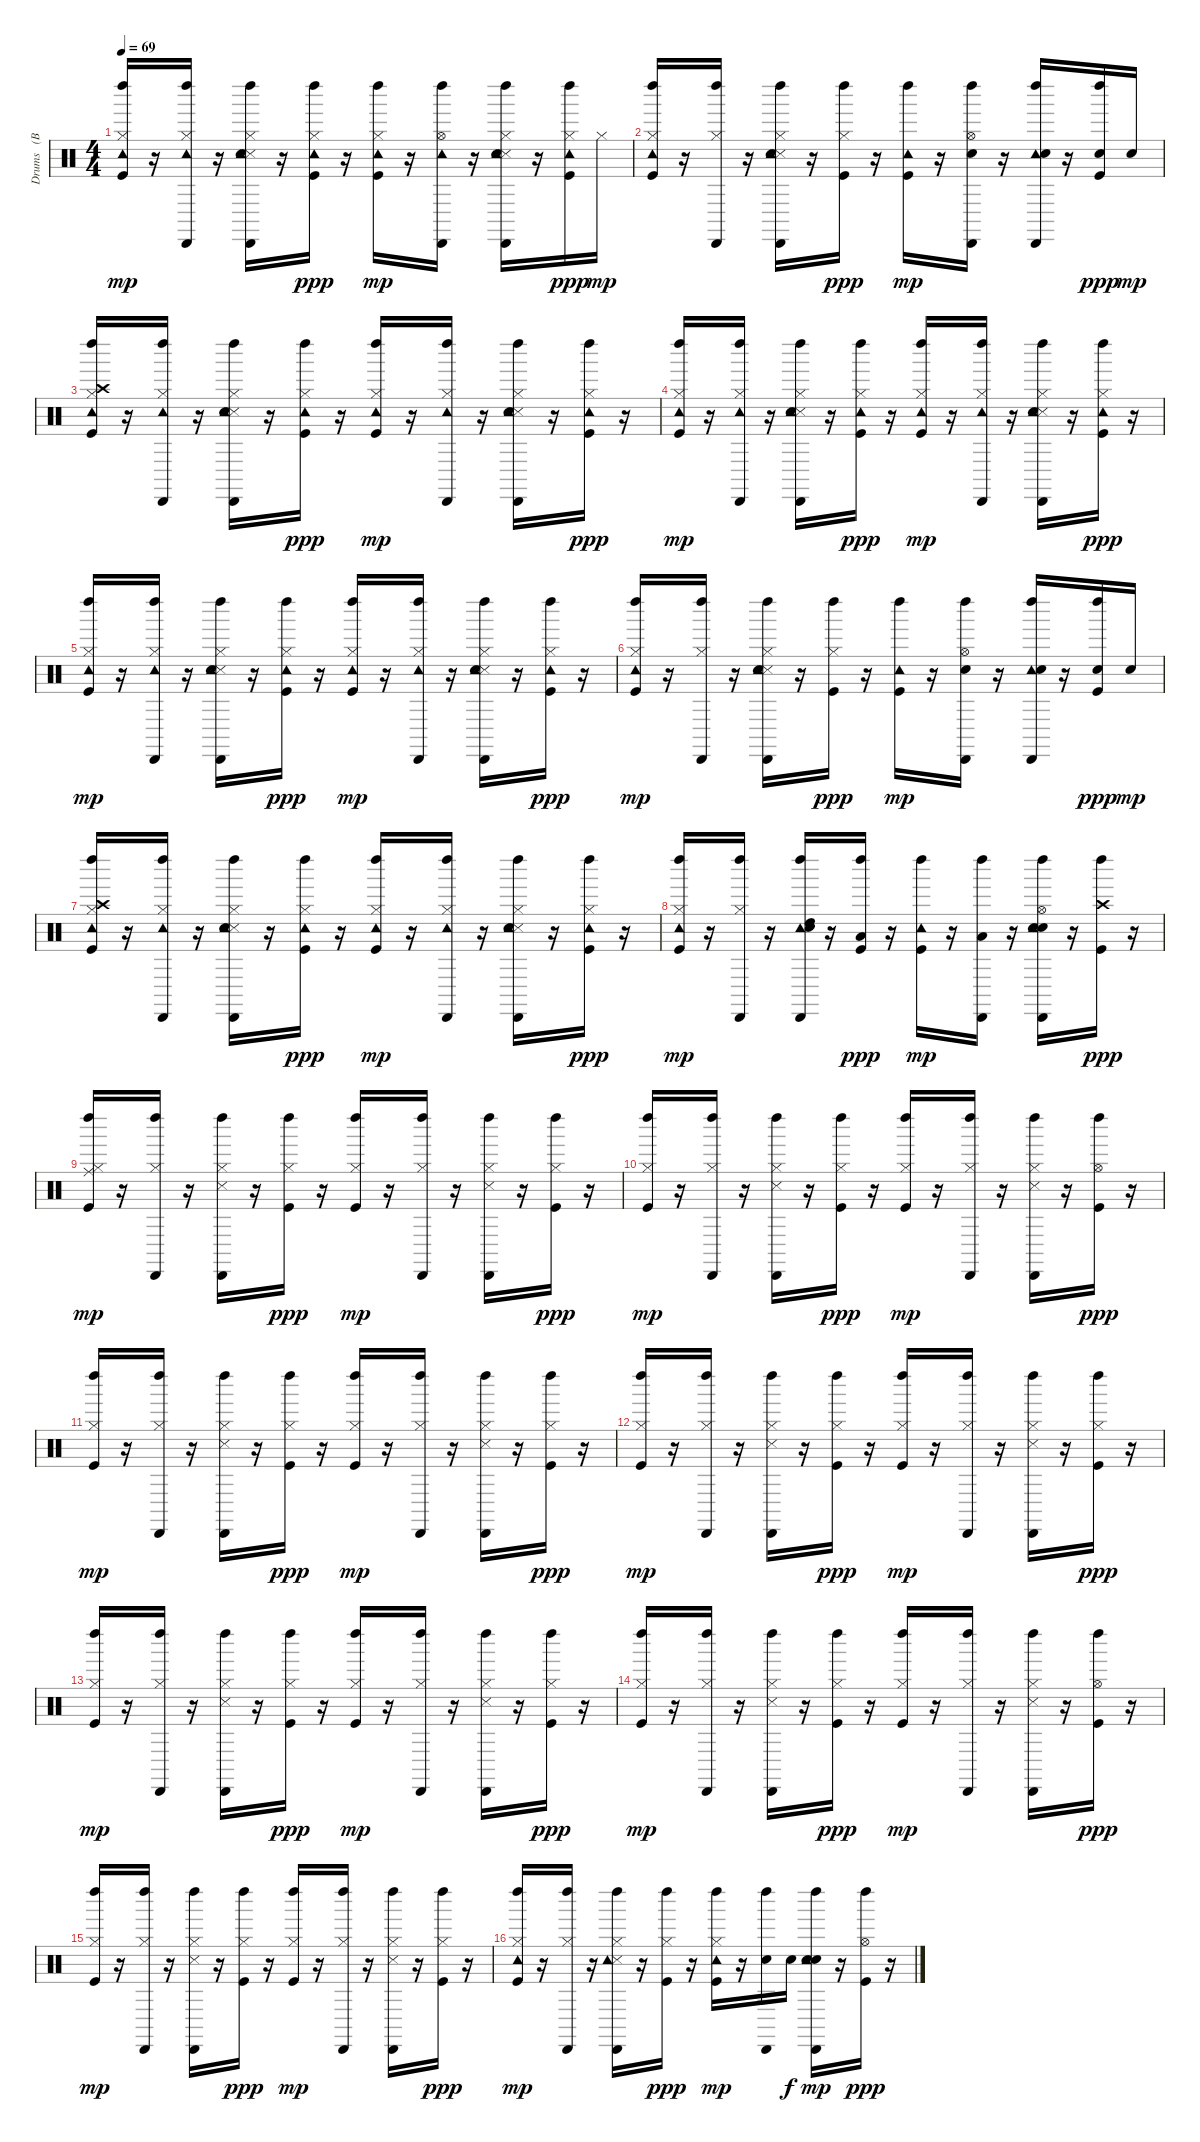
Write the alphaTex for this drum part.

\track ("Drums   (BB)" "Drums   (B") {instrument percussion}
\staff {score}
\articulation defaults
\ts (4 4)
\tempo 69
\clef neutral
\ks c
("Kick (hit)" "Hi-Hat (closed)" "Tambourine (hit)" "Left Maraca (hit)").16{dy mp} r.16 ("Hi-Hat (closed)" "Tambourine (hit)" "Left Maraca (hit)" "Cabasa (hit)").16 r.16 ("Hi-Hat (closed)" "Snare (side stick) 3" "Tambourine (hit)" "Hand Clap (hit)" "Left Maraca (hit)" "Cabasa (hit)").16 r.16 ("Kick (hit)" "Hi-Hat (closed)" "Tambourine (hit)" "Left Maraca (hit)").16{dy ppp} r.16 ("Kick (hit)" "Hi-Hat (closed)" "Tambourine (hit)" "Left Maraca (hit)").16{dy mp} r.16 ("Hi-Hat (open)" "Tambourine (hit)" "Left Maraca (hit)" "Cabasa (hit)").16 r.16 ("Hi-Hat (closed)" "Snare (side stick) 3" "Tambourine (hit)" "Hand Clap (hit)" "Left Maraca (hit)" "Cabasa (hit)").16 r.16 ("Kick (hit)" "Hi-Hat (closed)" "Tambourine (hit)" "Left Maraca (hit)").16{dy ppp} "Hi-Hat (closed)".16{dy mp} |
("Kick (hit)" "Hi-Hat (closed)" "Tambourine (hit)" "Left Maraca (hit)").16 r.16 ("Hi-Hat (closed)" "Left Maraca (hit)" "Cabasa (hit)").16 r.16 ("Hi-Hat (closed)" "Snare (side stick) 3" "Tambourine (hit)" "Hand Clap (hit)" "Left Maraca (hit)" "Cabasa (hit)").16 r.16 ("Kick (hit)" "Hi-Hat (closed)" "Left Maraca (hit)").16{dy ppp} r.16 ("Kick (hit)" "Tambourine (hit)" "Left Maraca (hit)").16{dy mp} r.16 ("Snare (hit) 2" "Hi-Hat (open)" "Left Maraca (hit)" "Cabasa (hit)").16 r.16 ("Tambourine (hit)" "Hand Clap (hit)" "Left Maraca (hit)" "Cabasa (hit)").16 r.16 ("Kick (hit)" "Snare (hit) 2" "Left Maraca (hit)").16{dy ppp} "Snare (hit) 2".16{dy mp} |
("Kick (hit)" "Hi-Hat (closed)" "Crash high (hit)" "Tambourine (hit)" "Left Maraca (hit)").16 r.16 ("Hi-Hat (closed)" "Tambourine (hit)" "Left Maraca (hit)" "Cabasa (hit)").16 r.16 ("Hi-Hat (closed)" "Snare (side stick) 3" "Tambourine (hit)" "Hand Clap (hit)" "Left Maraca (hit)" "Cabasa (hit)").16 r.16 ("Kick (hit)" "Hi-Hat (closed)" "Tambourine (hit)" "Left Maraca (hit)").16{dy ppp} r.16 ("Kick (hit)" "Hi-Hat (closed)" "Tambourine (hit)" "Left Maraca (hit)").16{dy mp} r.16 ("Hi-Hat (closed)" "Tambourine (hit)" "Left Maraca (hit)" "Cabasa (hit)").16 r.16 ("Hi-Hat (closed)" "Snare (side stick) 3" "Tambourine (hit)" "Hand Clap (hit)" "Left Maraca (hit)" "Cabasa (hit)").16 r.16 ("Kick (hit)" "Hi-Hat (closed)" "Tambourine (hit)" "Left Maraca (hit)").16{dy ppp} r.16 |
("Kick (hit)" "Hi-Hat (closed)" "Tambourine (hit)" "Left Maraca (hit)").16{dy mp} r.16 ("Hi-Hat (closed)" "Tambourine (hit)" "Left Maraca (hit)" "Cabasa (hit)").16 r.16 ("Hi-Hat (closed)" "Snare (side stick) 3" "Tambourine (hit)" "Hand Clap (hit)" "Left Maraca (hit)" "Cabasa (hit)").16 r.16 ("Kick (hit)" "Hi-Hat (closed)" "Tambourine (hit)" "Left Maraca (hit)").16{dy ppp} r.16 ("Kick (hit)" "Hi-Hat (closed)" "Tambourine (hit)" "Left Maraca (hit)").16{dy mp} r.16 ("Hi-Hat (closed)" "Tambourine (hit)" "Left Maraca (hit)" "Cabasa (hit)").16 r.16 ("Hi-Hat (closed)" "Snare (side stick) 3" "Tambourine (hit)" "Hand Clap (hit)" "Left Maraca (hit)" "Cabasa (hit)").16 r.16 ("Kick (hit)" "Hi-Hat (closed)" "Tambourine (hit)" "Left Maraca (hit)").16{dy ppp} r.16 |
("Kick (hit)" "Hi-Hat (closed)" "Tambourine (hit)" "Left Maraca (hit)").16{dy mp} r.16 ("Hi-Hat (closed)" "Tambourine (hit)" "Left Maraca (hit)" "Cabasa (hit)").16 r.16 ("Hi-Hat (closed)" "Snare (side stick) 3" "Tambourine (hit)" "Hand Clap (hit)" "Left Maraca (hit)" "Cabasa (hit)").16 r.16 ("Kick (hit)" "Hi-Hat (closed)" "Tambourine (hit)" "Left Maraca (hit)").16{dy ppp} r.16 ("Kick (hit)" "Hi-Hat (closed)" "Tambourine (hit)" "Left Maraca (hit)").16{dy mp} r.16 ("Hi-Hat (closed)" "Tambourine (hit)" "Left Maraca (hit)" "Cabasa (hit)").16 r.16 ("Hi-Hat (closed)" "Snare (side stick) 3" "Tambourine (hit)" "Hand Clap (hit)" "Left Maraca (hit)" "Cabasa (hit)").16 r.16 ("Kick (hit)" "Hi-Hat (closed)" "Tambourine (hit)" "Left Maraca (hit)").16{dy ppp} r.16 |
("Kick (hit)" "Hi-Hat (closed)" "Tambourine (hit)" "Left Maraca (hit)").16{dy mp} r.16 ("Hi-Hat (closed)" "Left Maraca (hit)" "Cabasa (hit)").16 r.16 ("Hi-Hat (closed)" "Snare (side stick) 3" "Tambourine (hit)" "Hand Clap (hit)" "Left Maraca (hit)" "Cabasa (hit)").16 r.16 ("Kick (hit)" "Hi-Hat (closed)" "Left Maraca (hit)").16{dy ppp} r.16 ("Kick (hit)" "Tambourine (hit)" "Left Maraca (hit)").16{dy mp} r.16 ("Snare (hit) 2" "Hi-Hat (open)" "Left Maraca (hit)" "Cabasa (hit)").16 r.16 ("Tambourine (hit)" "Hand Clap (hit)" "Left Maraca (hit)" "Cabasa (hit)").16 r.16 ("Kick (hit)" "Snare (hit) 2" "Left Maraca (hit)").16{dy ppp} "Snare (hit) 2".16{dy mp} |
("Kick (hit)" "Hi-Hat (closed)" "Crash high (hit)" "Tambourine (hit)" "Left Maraca (hit)").16 r.16 ("Hi-Hat (closed)" "Tambourine (hit)" "Left Maraca (hit)" "Cabasa (hit)").16 r.16 ("Hi-Hat (closed)" "Snare (side stick) 3" "Tambourine (hit)" "Hand Clap (hit)" "Left Maraca (hit)" "Cabasa (hit)").16 r.16 ("Kick (hit)" "Hi-Hat (closed)" "Tambourine (hit)" "Left Maraca (hit)").16{dy ppp} r.16 ("Kick (hit)" "Hi-Hat (closed)" "Tambourine (hit)" "Left Maraca (hit)").16{dy mp} r.16 ("Hi-Hat (closed)" "Tambourine (hit)" "Left Maraca (hit)" "Cabasa (hit)").16 r.16 ("Hi-Hat (closed)" "Snare (side stick) 3" "Tambourine (hit)" "Hand Clap (hit)" "Left Maraca (hit)" "Cabasa (hit)").16 r.16 ("Kick (hit)" "Hi-Hat (closed)" "Tambourine (hit)" "Left Maraca (hit)").16{dy ppp} r.16 |
("Kick (hit)" "Hi-Hat (closed)" "Tambourine (hit)" "Left Maraca (hit)").16{dy mp} r.16 ("Hi-Hat (closed)" "Left Maraca (hit)" "Cabasa (hit)").16 r.16 ("High Tom (hit)" "Tambourine (hit)" "Hand Clap (hit)" "Left Maraca (hit)" "Cabasa (hit)").16 r.16 ("Kick (hit)" "Low Tom (hit)" "Left Maraca (hit)").16{dy ppp} r.16 ("Kick (hit)" "Tambourine (hit)" "Left Maraca (hit)").16{dy mp} r.16 ("Low Tom (hit)" "Left Maraca (hit)" "Cabasa (hit)").16 r.16 ("Snare (hit) 2" "Hi-Hat (open)" "Tambourine (hit)" "Hand Clap (hit)" "Left Maraca (hit)" "Cabasa (hit)").16 r.16 ("Kick (hit)" "Crash high (hit)" "Left Maraca (hit)").16{dy ppp} r.16 |
("Kick (hit)" "Hi-Hat (closed)" "Ride (middle)" "Left Maraca (hit)").16{dy mp} r.16 ("Hi-Hat (closed)" "Left Maraca (hit)" "Cabasa (hit)").16 r.16 ("Hi-Hat (closed)" "Snare (side stick) 3" "Left Maraca (hit)" "Cabasa (hit)").16 r.16 ("Kick (hit)" "Hi-Hat (closed)" "Left Maraca (hit)").16{dy ppp} r.16 ("Kick (hit)" "Hi-Hat (closed)" "Left Maraca (hit)").16{dy mp} r.16 ("Hi-Hat (closed)" "Left Maraca (hit)" "Cabasa (hit)").16 r.16 ("Hi-Hat (closed)" "Snare (side stick) 3" "Left Maraca (hit)" "Cabasa (hit)").16 r.16 ("Kick (hit)" "Hi-Hat (closed)" "Left Maraca (hit)").16{dy ppp} r.16 |
("Kick (hit)" "Hi-Hat (closed)" "Left Maraca (hit)").16{dy mp} r.16 ("Hi-Hat (closed)" "Left Maraca (hit)" "Cabasa (hit)").16 r.16 ("Hi-Hat (closed)" "Snare (side stick) 3" "Left Maraca (hit)" "Cabasa (hit)").16 r.16 ("Kick (hit)" "Hi-Hat (closed)" "Left Maraca (hit)").16{dy ppp} r.16 ("Kick (hit)" "Hi-Hat (closed)" "Left Maraca (hit)").16{dy mp} r.16 ("Hi-Hat (closed)" "Left Maraca (hit)" "Cabasa (hit)").16 r.16 ("Hi-Hat (closed)" "Snare (side stick) 3" "Left Maraca (hit)" "Cabasa (hit)").16 r.16 ("Kick (hit)" "Hi-Hat (open)" "Left Maraca (hit)").16{dy ppp} r.16 |
("Kick (hit)" "Hi-Hat (closed)" "Left Maraca (hit)").16{dy mp} r.16 ("Hi-Hat (closed)" "Left Maraca (hit)" "Cabasa (hit)").16 r.16 ("Hi-Hat (closed)" "Snare (side stick) 3" "Left Maraca (hit)" "Cabasa (hit)").16 r.16 ("Kick (hit)" "Hi-Hat (closed)" "Left Maraca (hit)").16{dy ppp} r.16 ("Kick (hit)" "Hi-Hat (closed)" "Left Maraca (hit)").16{dy mp} r.16 ("Hi-Hat (closed)" "Left Maraca (hit)" "Cabasa (hit)").16 r.16 ("Hi-Hat (closed)" "Snare (side stick) 3" "Left Maraca (hit)" "Cabasa (hit)").16 r.16 ("Kick (hit)" "Hi-Hat (closed)" "Left Maraca (hit)").16{dy ppp} r.16 |
("Kick (hit)" "Hi-Hat (closed)" "Left Maraca (hit)").16{dy mp} r.16 ("Hi-Hat (closed)" "Left Maraca (hit)" "Cabasa (hit)").16 r.16 ("Hi-Hat (closed)" "Snare (side stick) 3" "Left Maraca (hit)" "Cabasa (hit)").16 r.16 ("Kick (hit)" "Hi-Hat (closed)" "Left Maraca (hit)").16{dy ppp} r.16 ("Kick (hit)" "Hi-Hat (closed)" "Left Maraca (hit)").16{dy mp} r.16 ("Hi-Hat (closed)" "Left Maraca (hit)" "Cabasa (hit)").16 r.16 ("Hi-Hat (closed)" "Snare (side stick) 3" "Left Maraca (hit)" "Cabasa (hit)").16 r.16 ("Kick (hit)" "Hi-Hat (closed)" "Left Maraca (hit)").16{dy ppp} r.16 |
("Kick (hit)" "Hi-Hat (closed)" "Left Maraca (hit)").16{dy mp} r.16 ("Hi-Hat (closed)" "Left Maraca (hit)" "Cabasa (hit)").16 r.16 ("Hi-Hat (closed)" "Snare (side stick) 3" "Left Maraca (hit)" "Cabasa (hit)").16 r.16 ("Kick (hit)" "Hi-Hat (closed)" "Left Maraca (hit)").16{dy ppp} r.16 ("Kick (hit)" "Hi-Hat (closed)" "Left Maraca (hit)").16{dy mp} r.16 ("Hi-Hat (closed)" "Left Maraca (hit)" "Cabasa (hit)").16 r.16 ("Hi-Hat (closed)" "Snare (side stick) 3" "Left Maraca (hit)" "Cabasa (hit)").16 r.16 ("Kick (hit)" "Hi-Hat (closed)" "Left Maraca (hit)").16{dy ppp} r.16 |
("Kick (hit)" "Hi-Hat (closed)" "Left Maraca (hit)").16{dy mp} r.16 ("Hi-Hat (closed)" "Left Maraca (hit)" "Cabasa (hit)").16 r.16 ("Hi-Hat (closed)" "Snare (side stick) 3" "Left Maraca (hit)" "Cabasa (hit)").16 r.16 ("Kick (hit)" "Hi-Hat (closed)" "Left Maraca (hit)").16{dy ppp} r.16 ("Kick (hit)" "Hi-Hat (closed)" "Left Maraca (hit)").16{dy mp} r.16 ("Hi-Hat (closed)" "Left Maraca (hit)" "Cabasa (hit)").16 r.16 ("Hi-Hat (closed)" "Snare (side stick) 3" "Left Maraca (hit)" "Cabasa (hit)").16 r.16 ("Kick (hit)" "Hi-Hat (open)" "Left Maraca (hit)").16{dy ppp} r.16 |
("Kick (hit)" "Hi-Hat (closed)" "Left Maraca (hit)").16{dy mp} r.16 ("Hi-Hat (closed)" "Left Maraca (hit)" "Cabasa (hit)").16 r.16 ("Hi-Hat (closed)" "Snare (side stick) 3" "Left Maraca (hit)" "Cabasa (hit)").16 r.16 ("Kick (hit)" "Hi-Hat (closed)" "Left Maraca (hit)").16{dy ppp} r.16 ("Kick (hit)" "Hi-Hat (closed)" "Left Maraca (hit)").16{dy mp} r.16 ("Hi-Hat (closed)" "Left Maraca (hit)" "Cabasa (hit)").16 r.16 ("Hi-Hat (closed)" "Snare (side stick) 3" "Left Maraca (hit)" "Cabasa (hit)").16 r.16 ("Kick (hit)" "Hi-Hat (closed)" "Left Maraca (hit)").16{dy ppp} r.16 |
("Kick (hit)" "Hi-Hat (closed)" "Tambourine (hit)" "Left Maraca (hit)").16{dy mp} r.16 ("Hi-Hat (closed)" "Left Maraca (hit)" "Cabasa (hit)").16 r.16 ("Hi-Hat (closed)" "Snare (side stick) 3" "Tambourine (hit)" "Left Maraca (hit)" "Cabasa (hit)").16 r.16 ("Kick (hit)" "Hi-Hat (closed)" "Left Maraca (hit)").16{dy ppp} r.16 ("Kick (hit)" "Hi-Hat (closed)" "Tambourine (hit)" "Left Maraca (hit)").16{dy mp} r.16 ("Snare (hit) 2" "Left Maraca (hit)" "Cabasa (hit)").16 "Snare (hit) 2".16{dy f} ("Snare (hit) 2" "Tambourine (hit)" "Hand Clap (hit)" "Left Maraca (hit)" "Cabasa (hit)").16{dy mp} r.16 ("Kick (hit)" "Hi-Hat (open)" "Left Maraca (hit)").16{dy ppp} r.16
